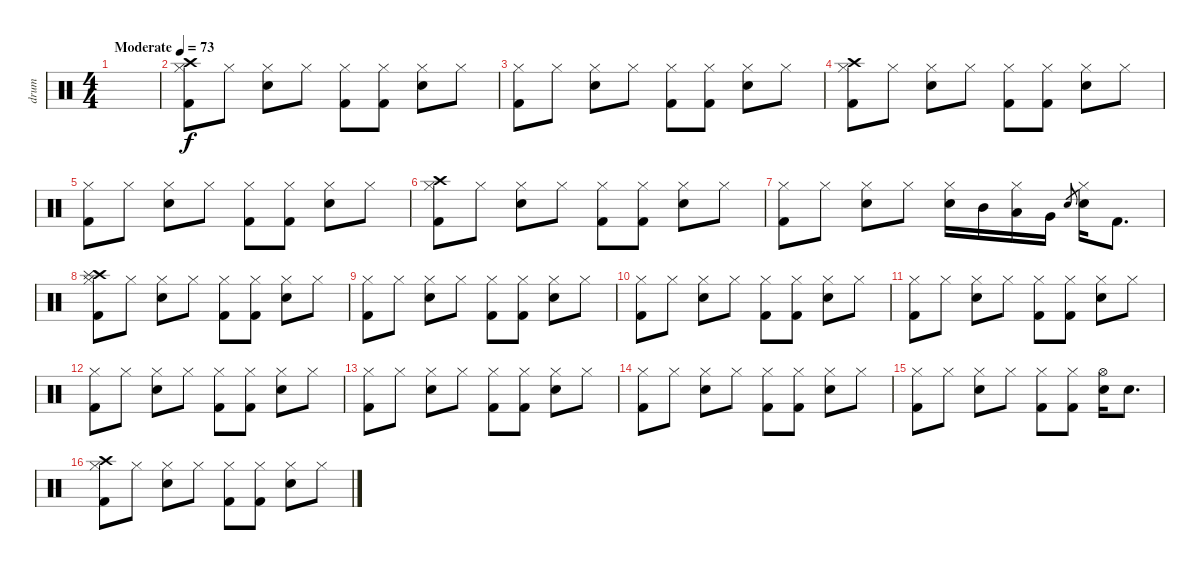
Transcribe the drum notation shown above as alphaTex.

\track ("drum" "drum") {instrument percussion}
\staff {score}
\articulation defaults
\ts (4 4)
\tempo (73 "Moderate")
\clef neutral
\ks c
|
("Crash high (hit)" "Hi-Hat (closed)" "Kick (hit) 2").8 "Hi-Hat (closed)".8 ("Hi-Hat (closed)" "Electric Snare (hit)").8 "Hi-Hat (closed)".8 ("Hi-Hat (closed)" "Kick (hit) 2").8 ("Hi-Hat (closed)" "Kick (hit) 2").8 ("Hi-Hat (closed)" "Electric Snare (hit)").8 "Hi-Hat (closed)".8 |
("Hi-Hat (closed)" "Kick (hit) 2").8 "Hi-Hat (closed)".8 ("Hi-Hat (closed)" "Electric Snare (hit)").8 "Hi-Hat (closed)".8 ("Hi-Hat (closed)" "Kick (hit) 2").8 ("Hi-Hat (closed)" "Kick (hit) 2").8 ("Hi-Hat (closed)" "Electric Snare (hit)").8 "Hi-Hat (closed)".8 |
("Crash high (hit)" "Hi-Hat (closed)" "Kick (hit) 2").8 "Hi-Hat (closed)".8 ("Hi-Hat (closed)" "Electric Snare (hit)").8 "Hi-Hat (closed)".8 ("Hi-Hat (closed)" "Kick (hit) 2").8 ("Hi-Hat (closed)" "Kick (hit) 2").8 ("Hi-Hat (closed)" "Electric Snare (hit)").8 "Hi-Hat (closed)".8 |
("Hi-Hat (closed)" "Kick (hit) 2").8 "Hi-Hat (closed)".8 ("Hi-Hat (closed)" "Electric Snare (hit)").8 "Hi-Hat (closed)".8 ("Hi-Hat (closed)" "Kick (hit) 2").8 ("Hi-Hat (closed)" "Kick (hit) 2").8 ("Hi-Hat (closed)" "Electric Snare (hit)").8 "Hi-Hat (closed)".8 |
("Crash high (hit)" "Hi-Hat (closed)" "Kick (hit) 2").8 "Hi-Hat (closed)".8 ("Hi-Hat (closed)" "Electric Snare (hit)").8 "Hi-Hat (closed)".8 ("Hi-Hat (closed)" "Kick (hit) 2").8 ("Hi-Hat (closed)" "Kick (hit) 2").8 ("Hi-Hat (closed)" "Electric Snare (hit)").8 "Hi-Hat (closed)".8 |
("Hi-Hat (closed)" "Kick (hit) 2").8 "Hi-Hat (closed)".8 ("Hi-Hat (closed)" "Electric Snare (hit)").8 "Hi-Hat (closed)".8 ("Hi-Hat (closed)" "Electric Snare (hit)").16 "Mid Tom (hit)".16 ("Hi-Hat (closed)" "Low Tom (hit)").16 "Very Low Tom (hit)".16 "Electric Snare (hit)".8{gr} ("Hi-Hat (closed)" "Electric Snare (hit)").16 "Kick (hit) 2".8{d} |
("Crash high (hit)" "Hi-Hat (closed)" "Splash (hit)" "Kick (hit) 2").8 "Hi-Hat (closed)".8 ("Hi-Hat (closed)" "Electric Snare (hit)").8 "Hi-Hat (closed)".8 ("Hi-Hat (closed)" "Kick (hit) 2").8 ("Hi-Hat (closed)" "Kick (hit) 2").8 ("Hi-Hat (closed)" "Electric Snare (hit)").8 "Hi-Hat (closed)".8 |
("Hi-Hat (closed)" "Kick (hit) 2").8 "Hi-Hat (closed)".8 ("Hi-Hat (closed)" "Electric Snare (hit)").8 "Hi-Hat (closed)".8 ("Hi-Hat (closed)" "Kick (hit) 2").8 ("Hi-Hat (closed)" "Kick (hit) 2").8 ("Hi-Hat (closed)" "Electric Snare (hit)").8 "Hi-Hat (closed)".8 |
("Hi-Hat (closed)" "Kick (hit) 2").8 "Hi-Hat (closed)".8 ("Hi-Hat (closed)" "Electric Snare (hit)").8 "Hi-Hat (closed)".8 ("Hi-Hat (closed)" "Kick (hit) 2").8 ("Hi-Hat (closed)" "Kick (hit) 2").8 ("Hi-Hat (closed)" "Electric Snare (hit)").8 "Hi-Hat (closed)".8 |
("Hi-Hat (closed)" "Kick (hit) 2").8 "Hi-Hat (closed)".8 ("Hi-Hat (closed)" "Electric Snare (hit)").8 "Hi-Hat (closed)".8 ("Hi-Hat (closed)" "Kick (hit) 2").8 ("Hi-Hat (closed)" "Kick (hit) 2").8 ("Hi-Hat (closed)" "Electric Snare (hit)").8 "Hi-Hat (closed)".8 |
("Hi-Hat (closed)" "Kick (hit) 2").8 "Hi-Hat (closed)".8 ("Hi-Hat (closed)" "Electric Snare (hit)").8 "Hi-Hat (closed)".8 ("Hi-Hat (closed)" "Kick (hit) 2").8 ("Hi-Hat (closed)" "Kick (hit) 2").8 ("Hi-Hat (closed)" "Electric Snare (hit)").8 "Hi-Hat (closed)".8 |
("Hi-Hat (closed)" "Kick (hit) 2").8 "Hi-Hat (closed)".8 ("Hi-Hat (closed)" "Electric Snare (hit)").8 "Hi-Hat (closed)".8 ("Hi-Hat (closed)" "Kick (hit) 2").8 ("Hi-Hat (closed)" "Kick (hit) 2").8 ("Hi-Hat (closed)" "Electric Snare (hit)").8 "Hi-Hat (closed)".8 |
("Hi-Hat (closed)" "Kick (hit) 2").8 "Hi-Hat (closed)".8 ("Hi-Hat (closed)" "Electric Snare (hit)").8 "Hi-Hat (closed)".8 ("Hi-Hat (closed)" "Kick (hit) 2").8 ("Hi-Hat (closed)" "Kick (hit) 2").8 ("Hi-Hat (closed)" "Electric Snare (hit)").8 "Hi-Hat (closed)".8 |
("Hi-Hat (closed)" "Kick (hit) 2").8 "Hi-Hat (closed)".8 ("Hi-Hat (closed)" "Electric Snare (hit)").8 "Hi-Hat (closed)".8 ("Hi-Hat (closed)" "Kick (hit) 2").8 ("Hi-Hat (closed)" "Kick (hit) 2").8 ("Hi-Hat (open)" "Electric Snare (hit)").16 "Electric Snare (hit)".8{d} |
("Crash high (hit)" "Hi-Hat (closed)" "Kick (hit) 2").8 "Hi-Hat (closed)".8 ("Hi-Hat (closed)" "Electric Snare (hit)").8 "Hi-Hat (closed)".8 ("Hi-Hat (closed)" "Kick (hit) 2").8 ("Hi-Hat (closed)" "Kick (hit) 2").8 ("Hi-Hat (closed)" "Electric Snare (hit)").8 "Hi-Hat (closed)".8
